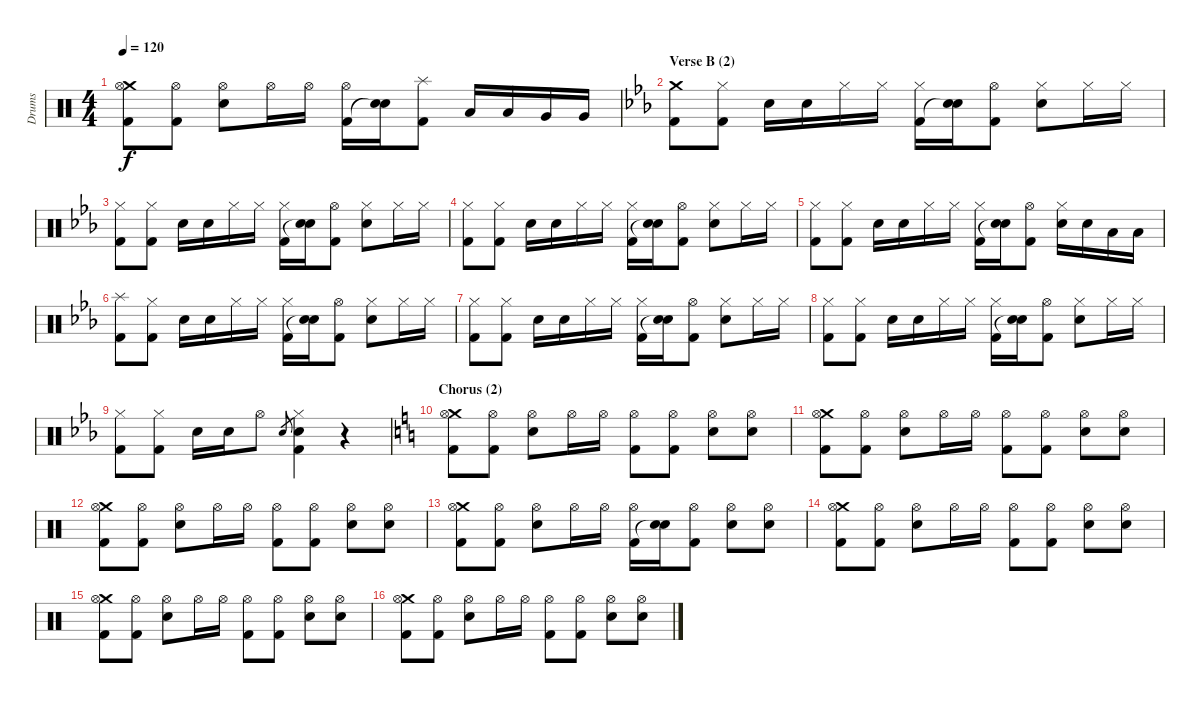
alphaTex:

\track ("Drums" "Drums") {instrument percussion}
\staff {score}
\articulation defaults
\ts (4 4)
\tempo 120
\clef neutral
\ks c
("Crash medium (hit)" "Hi-Hat (open)" "Kick (hit) 2").8{dy f} ("Hi-Hat (open)" "Kick (hit) 2").8 ("Hi-Hat (open)" "Electric Snare (hit)").8 "Hi-Hat (open)".16 "Hi-Hat (open)".16 ("Hi-Hat (open)" "Kick (hit) 2").16 ("Electric Snare (hit)" "Snare (hit)"{t}).16 ("Splash (hit)" "Kick (hit) 2").8 "Low Tom (hit)".16 "Low Tom (hit)".16 "Very Low Tom (hit)".16 "Very Low Tom (hit)".16 |
\section ("" "Verse B (2)")
\ks eb
("Crash medium (hit)" "Kick (hit) 2").8 ("Hi-Hat (closed)" "Kick (hit) 2").8 "Electric Snare (hit)".16 "Electric Snare (hit)".16 "Hi-Hat (closed)".16 "Hi-Hat (closed)".16 ("Hi-Hat (closed)" "Kick (hit) 2").16 ("Electric Snare (hit)" "Snare (hit)"{t}).16 ("Hi-Hat (open)" "Kick (hit) 2").8 ("Hi-Hat (closed)" "Electric Snare (hit)").8 "Hi-Hat (closed)".16 "Hi-Hat (closed)".16 |
("Hi-Hat (closed)" "Kick (hit) 2").8 ("Hi-Hat (closed)" "Kick (hit) 2").8 "Electric Snare (hit)".16 "Electric Snare (hit)".16 "Hi-Hat (closed)".16 "Hi-Hat (closed)".16 ("Hi-Hat (closed)" "Kick (hit) 2").16 ("Electric Snare (hit)" "Snare (hit)"{t}).16 ("Hi-Hat (open)" "Kick (hit) 2").8 ("Hi-Hat (closed)" "Electric Snare (hit)").8 "Hi-Hat (closed)".16 "Hi-Hat (closed)".16 |
("Hi-Hat (closed)" "Kick (hit) 2").8 ("Hi-Hat (closed)" "Kick (hit) 2").8 "Electric Snare (hit)".16 "Electric Snare (hit)".16 "Hi-Hat (closed)".16 "Hi-Hat (closed)".16 ("Hi-Hat (closed)" "Kick (hit) 2").16 ("Electric Snare (hit)" "Snare (hit)"{t}).16 ("Hi-Hat (open)" "Kick (hit) 2").8 ("Hi-Hat (closed)" "Electric Snare (hit)").8 "Hi-Hat (closed)".16 "Hi-Hat (closed)".16 |
("Hi-Hat (closed)" "Kick (hit) 2").8 ("Hi-Hat (closed)" "Kick (hit) 2").8 "Electric Snare (hit)".16 "Electric Snare (hit)".16 "Hi-Hat (closed)".16 "Hi-Hat (closed)".16 ("Hi-Hat (closed)" "Kick (hit) 2").16 ("Electric Snare (hit)" "Snare (hit)"{t}).16 ("Hi-Hat (open)" "Kick (hit) 2").8 ("Hi-Hat (closed)" "Electric Snare (hit)").16 "Electric Snare (hit)".16 "Low Tom (hit)".16 "Low Tom (hit)".16 |
("Splash (hit)" "Kick (hit) 2").8 ("Hi-Hat (closed)" "Kick (hit) 2").8 "Electric Snare (hit)".16 "Electric Snare (hit)".16 "Hi-Hat (closed)".16 "Hi-Hat (closed)".16 ("Hi-Hat (closed)" "Kick (hit) 2").16 ("Electric Snare (hit)" "Snare (hit)"{t}).16 ("Hi-Hat (open)" "Kick (hit) 2").8 ("Hi-Hat (closed)" "Electric Snare (hit)").8 "Hi-Hat (closed)".16 "Hi-Hat (closed)".16 |
("Hi-Hat (closed)" "Kick (hit) 2").8 ("Hi-Hat (closed)" "Kick (hit) 2").8 "Electric Snare (hit)".16 "Electric Snare (hit)".16 "Hi-Hat (closed)".16 "Hi-Hat (closed)".16 ("Hi-Hat (closed)" "Kick (hit) 2").16 ("Electric Snare (hit)" "Snare (hit)"{t}).16 ("Hi-Hat (open)" "Kick (hit) 2").8 ("Hi-Hat (closed)" "Electric Snare (hit)").8 "Hi-Hat (closed)".16 "Hi-Hat (closed)".16 |
("Hi-Hat (closed)" "Kick (hit) 2").8 ("Hi-Hat (closed)" "Kick (hit) 2").8 "Electric Snare (hit)".16 "Electric Snare (hit)".16 "Hi-Hat (closed)".16 "Hi-Hat (closed)".16 ("Hi-Hat (closed)" "Kick (hit) 2").16 ("Electric Snare (hit)" "Snare (hit)"{t}).16 ("Hi-Hat (open)" "Kick (hit) 2").8 ("Hi-Hat (closed)" "Electric Snare (hit)").8 "Hi-Hat (closed)".16 "Hi-Hat (closed)".16 |
("Hi-Hat (closed)" "Kick (hit) 2").8 ("Hi-Hat (closed)" "Kick (hit) 2").8 "Electric Snare (hit)".16 "Electric Snare (hit)".16 "Hi-Hat (open)".8 "Electric Snare (hit)".8{gr} ("Hi-Hat (closed)" "Electric Snare (hit)" "Kick (hit) 2").4 r.4 |
\section ("" "Chorus (2)")
\ks c
("Crash medium (hit)" "Hi-Hat (open)" "Kick (hit) 2").8 ("Hi-Hat (open)" "Kick (hit) 2").8 ("Hi-Hat (open)" "Electric Snare (hit)").8 "Hi-Hat (open)".16 "Hi-Hat (open)".16 ("Hi-Hat (open)" "Kick (hit) 2").8 ("Hi-Hat (open)" "Kick (hit) 2").8 ("Hi-Hat (open)" "Electric Snare (hit)").8 ("Hi-Hat (open)" "Electric Snare (hit)").8 |
("Crash medium (hit)" "Hi-Hat (open)" "Kick (hit) 2").8 ("Hi-Hat (open)" "Kick (hit) 2").8 ("Hi-Hat (open)" "Electric Snare (hit)").8 "Hi-Hat (open)".16 "Hi-Hat (open)".16 ("Hi-Hat (open)" "Kick (hit) 2").8 ("Hi-Hat (open)" "Kick (hit) 2").8 ("Hi-Hat (open)" "Electric Snare (hit)").8 ("Hi-Hat (open)" "Electric Snare (hit)").8 |
("Crash medium (hit)" "Hi-Hat (open)" "Kick (hit) 2").8 ("Hi-Hat (open)" "Kick (hit) 2").8 ("Hi-Hat (open)" "Electric Snare (hit)").8 "Hi-Hat (open)".16 "Hi-Hat (open)".16 ("Hi-Hat (open)" "Kick (hit) 2").8 ("Hi-Hat (open)" "Kick (hit) 2").8 ("Hi-Hat (open)" "Electric Snare (hit)").8 ("Hi-Hat (open)" "Electric Snare (hit)").8 |
("Crash medium (hit)" "Hi-Hat (open)" "Kick (hit) 2").8 ("Hi-Hat (open)" "Kick (hit) 2").8 ("Hi-Hat (open)" "Electric Snare (hit)").8 "Hi-Hat (open)".16 "Hi-Hat (open)".16 ("Hi-Hat (open)" "Kick (hit) 2").16 ("Electric Snare (hit)" "Snare (hit)"{t}).16 ("Hi-Hat (open)" "Kick (hit) 2").8 ("Hi-Hat (open)" "Electric Snare (hit)").8 ("Hi-Hat (open)" "Electric Snare (hit)").8 |
("Crash medium (hit)" "Hi-Hat (open)" "Kick (hit) 2").8 ("Hi-Hat (open)" "Kick (hit) 2").8 ("Hi-Hat (open)" "Electric Snare (hit)").8 "Hi-Hat (open)".16 "Hi-Hat (open)".16 ("Hi-Hat (open)" "Kick (hit) 2").8 ("Hi-Hat (open)" "Kick (hit) 2").8 ("Hi-Hat (open)" "Electric Snare (hit)").8 ("Hi-Hat (open)" "Electric Snare (hit)").8 |
("Crash medium (hit)" "Hi-Hat (open)" "Kick (hit) 2").8 ("Hi-Hat (open)" "Kick (hit) 2").8 ("Hi-Hat (open)" "Electric Snare (hit)").8 "Hi-Hat (open)".16 "Hi-Hat (open)".16 ("Hi-Hat (open)" "Kick (hit) 2").8 ("Hi-Hat (open)" "Kick (hit) 2").8 ("Hi-Hat (open)" "Electric Snare (hit)").8 ("Hi-Hat (open)" "Electric Snare (hit)").8 |
("Crash medium (hit)" "Hi-Hat (open)" "Kick (hit) 2").8 ("Hi-Hat (open)" "Kick (hit) 2").8 ("Hi-Hat (open)" "Electric Snare (hit)").8 "Hi-Hat (open)".16 "Hi-Hat (open)".16 ("Hi-Hat (open)" "Kick (hit) 2").8 ("Hi-Hat (open)" "Kick (hit) 2").8 ("Hi-Hat (open)" "Electric Snare (hit)").8 ("Hi-Hat (open)" "Electric Snare (hit)").8
